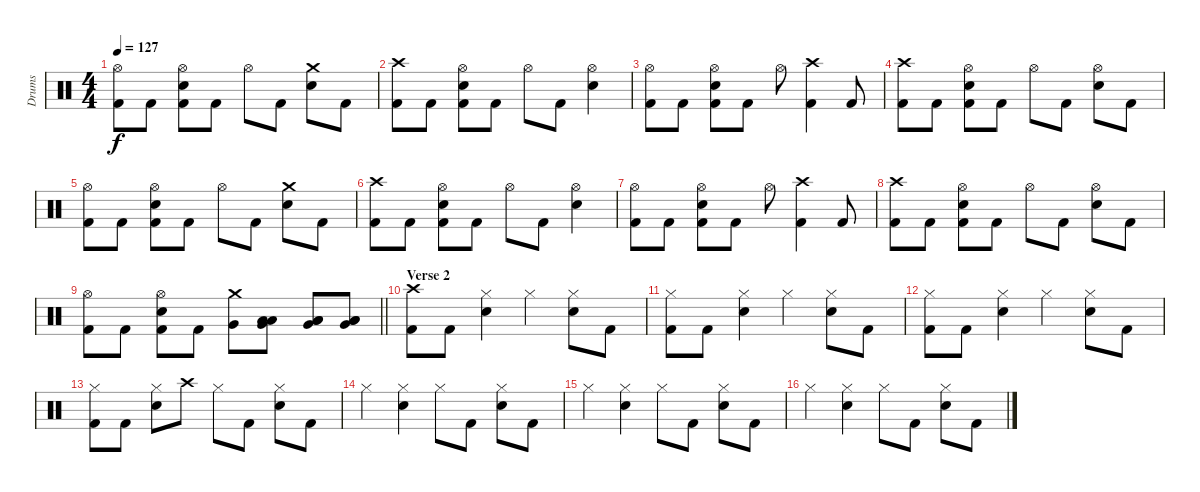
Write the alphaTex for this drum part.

\track ("Drums" "Drums") {instrument percussion}
\staff {score}
\articulation defaults
\ts (4 4)
\tempo 127
\clef neutral
\ks c
("Hi-Hat (open)" "Kick (hit) 2").8{dy f} "Kick (hit) 2".8 ("Hi-Hat (open)" "Electric Snare (hit)" "Kick (hit) 2").8 "Kick (hit) 2".8 "Hi-Hat (open)".8 "Kick (hit) 2".8 ("Crash medium (hit)" "Electric Snare (hit)").8 "Kick (hit) 2".8 |
("Crash high (hit)" "Kick (hit) 2").8 "Kick (hit) 2".8 ("Hi-Hat (open)" "Electric Snare (hit)" "Kick (hit) 2").8 "Kick (hit) 2".8 "Hi-Hat (open)".8 "Kick (hit) 2".8 ("Hi-Hat (open)" "Electric Snare (hit)").4 |
("Hi-Hat (open)" "Kick (hit) 2").8 "Kick (hit) 2".8 ("Hi-Hat (open)" "Electric Snare (hit)" "Kick (hit) 2").8 "Kick (hit) 2".8 "Hi-Hat (open)".8 ("Crash high (hit)" "Kick (hit) 2").4 "Kick (hit) 2".8 |
("Crash high (hit)" "Kick (hit) 2").8 "Kick (hit) 2".8 ("Hi-Hat (open)" "Electric Snare (hit)" "Kick (hit) 2").8 "Kick (hit) 2".8 "Hi-Hat (open)".8 "Kick (hit) 2".8 ("Hi-Hat (open)" "Electric Snare (hit)").8 "Kick (hit) 2".8 |
("Hi-Hat (open)" "Kick (hit) 2").8 "Kick (hit) 2".8 ("Hi-Hat (open)" "Electric Snare (hit)" "Kick (hit) 2").8 "Kick (hit) 2".8 "Hi-Hat (open)".8 "Kick (hit) 2".8 ("Crash medium (hit)" "Electric Snare (hit)").8 "Kick (hit) 2".8 |
("Crash high (hit)" "Kick (hit) 2").8 "Kick (hit) 2".8 ("Hi-Hat (open)" "Electric Snare (hit)" "Kick (hit) 2").8 "Kick (hit) 2".8 "Hi-Hat (open)".8 "Kick (hit) 2".8 ("Hi-Hat (open)" "Electric Snare (hit)").4 |
("Hi-Hat (open)" "Kick (hit) 2").8 "Kick (hit) 2".8 ("Hi-Hat (open)" "Electric Snare (hit)" "Kick (hit) 2").8 "Kick (hit) 2".8 "Hi-Hat (open)".8 ("Crash high (hit)" "Kick (hit) 2").4 "Kick (hit) 2".8 |
("Crash high (hit)" "Kick (hit) 2").8 "Kick (hit) 2".8 ("Hi-Hat (open)" "Electric Snare (hit)" "Kick (hit) 2").8 "Kick (hit) 2".8 "Hi-Hat (open)".8 "Kick (hit) 2".8 ("Hi-Hat (open)" "Electric Snare (hit)").8 "Kick (hit) 2".8 |
\barLineRight lightlight
("Hi-Hat (open)" "Kick (hit) 2").8 "Kick (hit) 2".8 ("Hi-Hat (open)" "Electric Snare (hit)" "Kick (hit) 2").8 "Kick (hit) 2".8 ("Crash medium (hit)" "Very Low Tom (hit)").8 ("Low Floor Tom (hit)" "Low Tom (hit)" "Very Low Tom (hit)").8 ("Low Floor Tom (hit)" "Low Tom (hit)" "Very Low Tom (hit)").8 ("Low Floor Tom (hit)" "Low Tom (hit)" "Very Low Tom (hit)").8 |
\section ("" "Verse 2")
("Crash high (hit)" "Kick (hit) 2").8 "Kick (hit) 2".8 ("Hi-Hat (closed)" "Electric Snare (hit)").4 "Hi-Hat (closed)".4 ("Hi-Hat (closed)" "Electric Snare (hit)").8 "Kick (hit) 2".8 |
("Hi-Hat (closed)" "Kick (hit) 2").8 "Kick (hit) 2".8 ("Hi-Hat (closed)" "Electric Snare (hit)").4 "Hi-Hat (closed)".4 ("Hi-Hat (closed)" "Electric Snare (hit)").8 "Kick (hit) 2".8 |
("Hi-Hat (closed)" "Kick (hit) 2").8 "Kick (hit) 2".8 ("Hi-Hat (closed)" "Electric Snare (hit)").4 "Hi-Hat (closed)".4 ("Hi-Hat (closed)" "Electric Snare (hit)").8 "Kick (hit) 2".8 |
("Hi-Hat (closed)" "Kick (hit) 2").8 "Kick (hit) 2".8 ("Hi-Hat (closed)" "Electric Snare (hit)").8 "Crash high (hit)".8 "Hi-Hat (closed)".8 "Kick (hit) 2".8 ("Hi-Hat (closed)" "Electric Snare (hit)").8 "Kick (hit) 2".8 |
"Hi-Hat (closed)".4 ("Hi-Hat (closed)" "Electric Snare (hit)").4 "Hi-Hat (closed)".8 "Kick (hit) 2".8 ("Hi-Hat (closed)" "Electric Snare (hit)").8 "Kick (hit) 2".8 |
"Hi-Hat (closed)".4 ("Hi-Hat (closed)" "Electric Snare (hit)").4 "Hi-Hat (closed)".8 "Kick (hit) 2".8 ("Hi-Hat (closed)" "Electric Snare (hit)").8 "Kick (hit) 2".8 |
"Hi-Hat (closed)".4 ("Hi-Hat (closed)" "Electric Snare (hit)").4 "Hi-Hat (closed)".8 "Kick (hit) 2".8 ("Hi-Hat (closed)" "Electric Snare (hit)").8 "Kick (hit) 2".8
